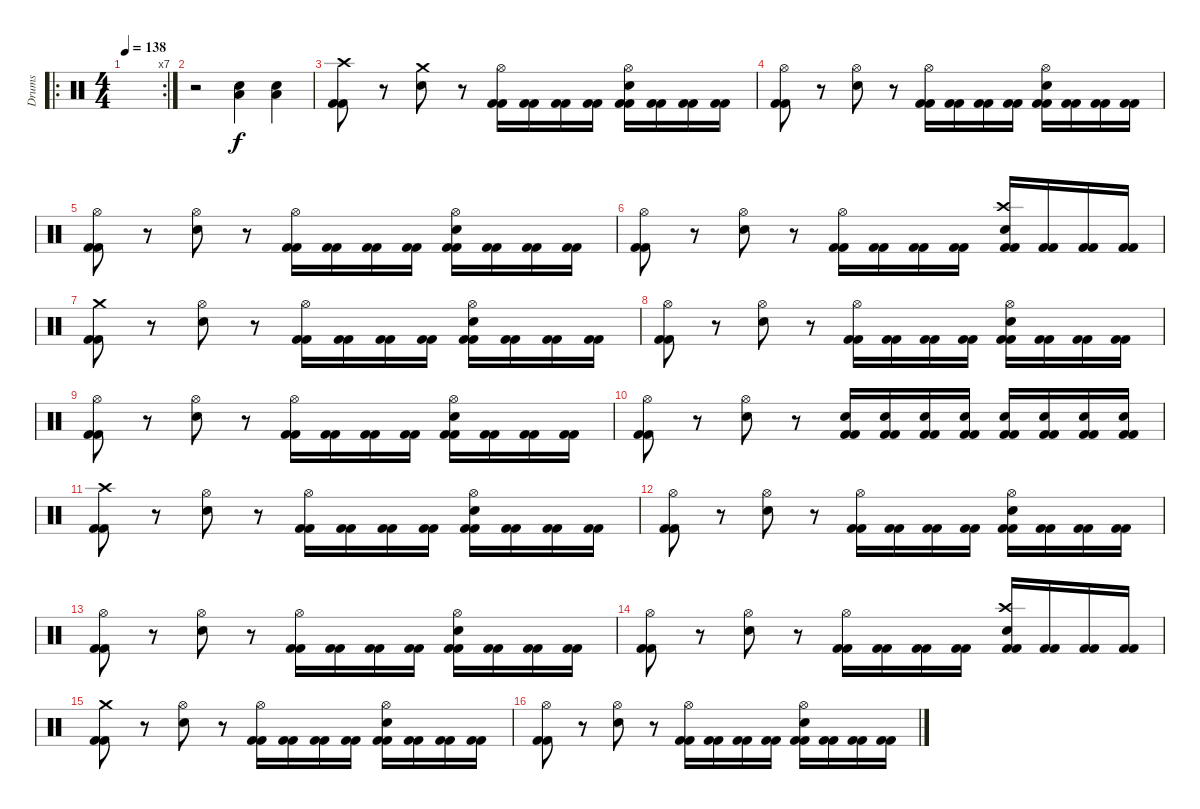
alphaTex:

\track ("Drums" "Drums") {instrument percussion}
\staff {score}
\articulation defaults
\ro
\rc 7
\ts (4 4)
\tempo 138
\clef neutral
\ks c
|
r.2 ("Low Floor Tom (hit)" "Electric Snare (hit)").4 ("Low Floor Tom (hit)" "Electric Snare (hit)").4 |
("Crash high (hit)" "Kick (hit) 2" "Kick (hit) 2").8 r.8 ("Crash medium (hit)" "Electric Snare (hit)").8 r.8 ("Hi-Hat (open)" "Kick (hit) 2" "Kick (hit) 2").16 ("Kick (hit) 2" "Kick (hit) 2").16 ("Kick (hit) 2" "Kick (hit) 2").16 ("Kick (hit) 2" "Kick (hit) 2").16 ("Hi-Hat (open)" "Electric Snare (hit)" "Kick (hit) 2" "Kick (hit) 2").16 ("Kick (hit) 2" "Kick (hit) 2").16 ("Kick (hit) 2" "Kick (hit) 2").16 ("Kick (hit) 2" "Kick (hit) 2").16 |
("Hi-Hat (open)" "Kick (hit) 2" "Kick (hit) 2").8 r.8 ("Hi-Hat (open)" "Electric Snare (hit)").8 r.8 ("Hi-Hat (open)" "Kick (hit) 2" "Kick (hit) 2").16 ("Kick (hit) 2" "Kick (hit) 2").16 ("Kick (hit) 2" "Kick (hit) 2").16 ("Kick (hit) 2" "Kick (hit) 2").16 ("Hi-Hat (open)" "Electric Snare (hit)" "Kick (hit) 2" "Kick (hit) 2").16 ("Kick (hit) 2" "Kick (hit) 2").16 ("Kick (hit) 2" "Kick (hit) 2").16 ("Kick (hit) 2" "Kick (hit) 2").16 |
("Hi-Hat (open)" "Kick (hit) 2" "Kick (hit) 2").8 r.8 ("Hi-Hat (open)" "Electric Snare (hit)").8 r.8 ("Hi-Hat (open)" "Kick (hit) 2" "Kick (hit) 2").16 ("Kick (hit) 2" "Kick (hit) 2").16 ("Kick (hit) 2" "Kick (hit) 2").16 ("Kick (hit) 2" "Kick (hit) 2").16 ("Hi-Hat (open)" "Electric Snare (hit)" "Kick (hit) 2" "Kick (hit) 2").16 ("Kick (hit) 2" "Kick (hit) 2").16 ("Kick (hit) 2" "Kick (hit) 2").16 ("Kick (hit) 2" "Kick (hit) 2").16 |
("Hi-Hat (open)" "Kick (hit) 2" "Kick (hit) 2").8 r.8 ("Hi-Hat (open)" "Electric Snare (hit)").8 r.8 ("Hi-Hat (open)" "Kick (hit) 2" "Kick (hit) 2").16 ("Kick (hit) 2" "Kick (hit) 2").16 ("Kick (hit) 2" "Kick (hit) 2").16 ("Kick (hit) 2" "Kick (hit) 2").16 ("Crash high (hit)" "Electric Snare (hit)" "Kick (hit) 2" "Kick (hit) 2").16 ("Kick (hit) 2" "Kick (hit) 2").16 ("Kick (hit) 2" "Kick (hit) 2").16 ("Kick (hit) 2" "Kick (hit) 2").16 |
("Crash medium (hit)" "Kick (hit) 2" "Kick (hit) 2").8 r.8 ("Hi-Hat (open)" "Electric Snare (hit)").8 r.8 ("Hi-Hat (open)" "Kick (hit) 2" "Kick (hit) 2").16 ("Kick (hit) 2" "Kick (hit) 2").16 ("Kick (hit) 2" "Kick (hit) 2").16 ("Kick (hit) 2" "Kick (hit) 2").16 ("Hi-Hat (open)" "Electric Snare (hit)" "Kick (hit) 2" "Kick (hit) 2").16 ("Kick (hit) 2" "Kick (hit) 2").16 ("Kick (hit) 2" "Kick (hit) 2").16 ("Kick (hit) 2" "Kick (hit) 2").16 |
("Hi-Hat (open)" "Kick (hit) 2" "Kick (hit) 2").8 r.8 ("Hi-Hat (open)" "Electric Snare (hit)").8 r.8 ("Hi-Hat (open)" "Kick (hit) 2" "Kick (hit) 2").16 ("Kick (hit) 2" "Kick (hit) 2").16 ("Kick (hit) 2" "Kick (hit) 2").16 ("Kick (hit) 2" "Kick (hit) 2").16 ("Hi-Hat (open)" "Electric Snare (hit)" "Kick (hit) 2" "Kick (hit) 2").16 ("Kick (hit) 2" "Kick (hit) 2").16 ("Kick (hit) 2" "Kick (hit) 2").16 ("Kick (hit) 2" "Kick (hit) 2").16 |
("Hi-Hat (open)" "Kick (hit) 2" "Kick (hit) 2").8 r.8 ("Hi-Hat (open)" "Electric Snare (hit)").8 r.8 ("Hi-Hat (open)" "Kick (hit) 2" "Kick (hit) 2").16 ("Kick (hit) 2" "Kick (hit) 2").16 ("Kick (hit) 2" "Kick (hit) 2").16 ("Kick (hit) 2" "Kick (hit) 2").16 ("Hi-Hat (open)" "Electric Snare (hit)" "Kick (hit) 2" "Kick (hit) 2").16 ("Kick (hit) 2" "Kick (hit) 2").16 ("Kick (hit) 2" "Kick (hit) 2").16 ("Kick (hit) 2" "Kick (hit) 2").16 |
("Hi-Hat (open)" "Kick (hit) 2" "Kick (hit) 2").8 r.8 ("Hi-Hat (open)" "Electric Snare (hit)").8 r.8 ("Electric Snare (hit)" "Kick (hit) 2" "Kick (hit) 2").16 ("Electric Snare (hit)" "Kick (hit) 2" "Kick (hit) 2").16 ("Electric Snare (hit)" "Kick (hit) 2" "Kick (hit) 2").16 ("Electric Snare (hit)" "Kick (hit) 2" "Kick (hit) 2").16 ("Electric Snare (hit)" "Kick (hit) 2" "Kick (hit) 2").16 ("Electric Snare (hit)" "Kick (hit) 2" "Kick (hit) 2").16 ("Electric Snare (hit)" "Kick (hit) 2" "Kick (hit) 2").16 ("Electric Snare (hit)" "Kick (hit) 2" "Kick (hit) 2").16 |
("Crash high (hit)" "Kick (hit) 2" "Kick (hit) 2").8 r.8 ("Hi-Hat (open)" "Electric Snare (hit)").8 r.8 ("Hi-Hat (open)" "Kick (hit) 2" "Kick (hit) 2").16 ("Kick (hit) 2" "Kick (hit) 2").16 ("Kick (hit) 2" "Kick (hit) 2").16 ("Kick (hit) 2" "Kick (hit) 2").16 ("Hi-Hat (open)" "Electric Snare (hit)" "Kick (hit) 2" "Kick (hit) 2").16 ("Kick (hit) 2" "Kick (hit) 2").16 ("Kick (hit) 2" "Kick (hit) 2").16 ("Kick (hit) 2" "Kick (hit) 2").16 |
("Hi-Hat (open)" "Kick (hit) 2" "Kick (hit) 2").8 r.8 ("Hi-Hat (open)" "Electric Snare (hit)").8 r.8 ("Hi-Hat (open)" "Kick (hit) 2" "Kick (hit) 2").16 ("Kick (hit) 2" "Kick (hit) 2").16 ("Kick (hit) 2" "Kick (hit) 2").16 ("Kick (hit) 2" "Kick (hit) 2").16 ("Hi-Hat (open)" "Electric Snare (hit)" "Kick (hit) 2" "Kick (hit) 2").16 ("Kick (hit) 2" "Kick (hit) 2").16 ("Kick (hit) 2" "Kick (hit) 2").16 ("Kick (hit) 2" "Kick (hit) 2").16 |
("Hi-Hat (open)" "Kick (hit) 2" "Kick (hit) 2").8 r.8 ("Hi-Hat (open)" "Electric Snare (hit)").8 r.8 ("Hi-Hat (open)" "Kick (hit) 2" "Kick (hit) 2").16 ("Kick (hit) 2" "Kick (hit) 2").16 ("Kick (hit) 2" "Kick (hit) 2").16 ("Kick (hit) 2" "Kick (hit) 2").16 ("Hi-Hat (open)" "Electric Snare (hit)" "Kick (hit) 2" "Kick (hit) 2").16 ("Kick (hit) 2" "Kick (hit) 2").16 ("Kick (hit) 2" "Kick (hit) 2").16 ("Kick (hit) 2" "Kick (hit) 2").16 |
("Hi-Hat (open)" "Kick (hit) 2" "Kick (hit) 2").8 r.8 ("Hi-Hat (open)" "Electric Snare (hit)").8 r.8 ("Hi-Hat (open)" "Kick (hit) 2" "Kick (hit) 2").16 ("Kick (hit) 2" "Kick (hit) 2").16 ("Kick (hit) 2" "Kick (hit) 2").16 ("Kick (hit) 2" "Kick (hit) 2").16 ("Crash high (hit)" "Electric Snare (hit)" "Kick (hit) 2" "Kick (hit) 2").16 ("Kick (hit) 2" "Kick (hit) 2").16 ("Kick (hit) 2" "Kick (hit) 2").16 ("Kick (hit) 2" "Kick (hit) 2").16 |
("Crash medium (hit)" "Kick (hit) 2" "Kick (hit) 2").8 r.8 ("Hi-Hat (open)" "Electric Snare (hit)").8 r.8 ("Hi-Hat (open)" "Kick (hit) 2" "Kick (hit) 2").16 ("Kick (hit) 2" "Kick (hit) 2").16 ("Kick (hit) 2" "Kick (hit) 2").16 ("Kick (hit) 2" "Kick (hit) 2").16 ("Hi-Hat (open)" "Electric Snare (hit)" "Kick (hit) 2" "Kick (hit) 2").16 ("Kick (hit) 2" "Kick (hit) 2").16 ("Kick (hit) 2" "Kick (hit) 2").16 ("Kick (hit) 2" "Kick (hit) 2").16 |
("Hi-Hat (open)" "Kick (hit) 2" "Kick (hit) 2").8 r.8 ("Hi-Hat (open)" "Electric Snare (hit)").8 r.8 ("Hi-Hat (open)" "Kick (hit) 2" "Kick (hit) 2").16 ("Kick (hit) 2" "Kick (hit) 2").16 ("Kick (hit) 2" "Kick (hit) 2").16 ("Kick (hit) 2" "Kick (hit) 2").16 ("Hi-Hat (open)" "Electric Snare (hit)" "Kick (hit) 2" "Kick (hit) 2").16 ("Kick (hit) 2" "Kick (hit) 2").16 ("Kick (hit) 2" "Kick (hit) 2").16 ("Kick (hit) 2" "Kick (hit) 2").16
